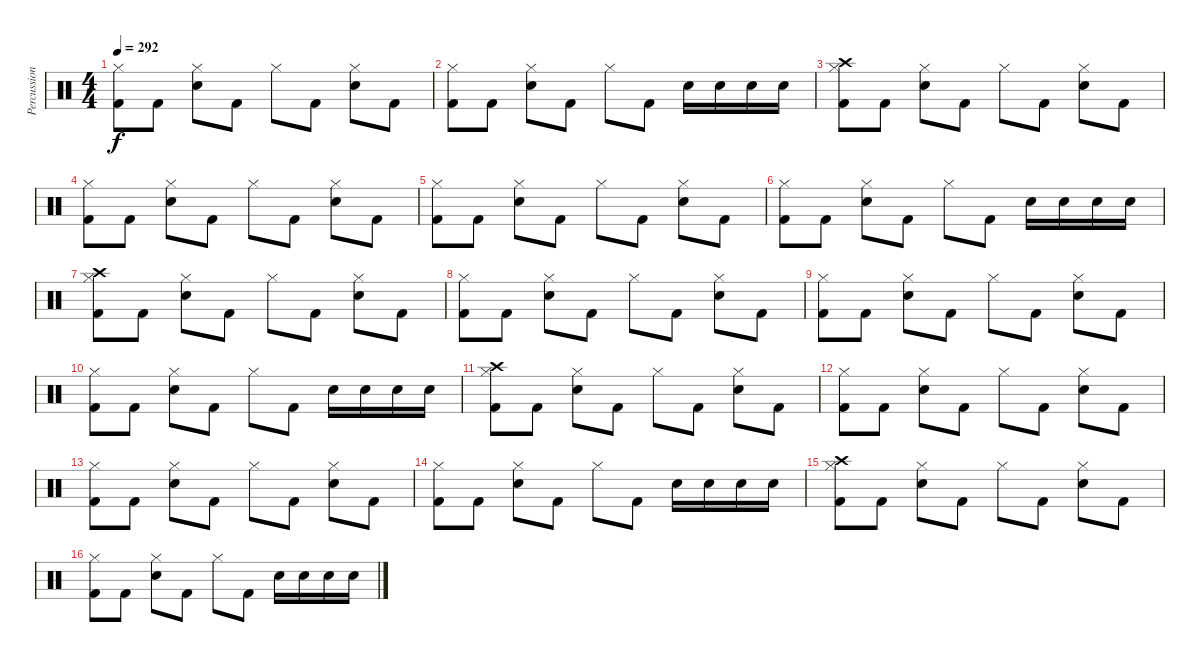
\track ("Percussion" "Percussion") {instrument percussion}
\staff {score}
\articulation defaults
\ts (4 4)
\tempo 292
\clef neutral
\ks c
("Hi-Hat (closed)" "Kick (hit) 2").8{dy f} "Kick (hit) 2".8 ("Hi-Hat (closed)" "Electric Snare (hit)").8 "Kick (hit) 2".8 "Hi-Hat (closed)".8 "Kick (hit) 2".8 ("Hi-Hat (closed)" "Electric Snare (hit)").8 "Kick (hit) 2".8 |
("Hi-Hat (closed)" "Kick (hit) 2").8 "Kick (hit) 2".8 ("Hi-Hat (closed)" "Electric Snare (hit)").8 "Kick (hit) 2".8 "Hi-Hat (closed)".8 "Kick (hit) 2".8 "Electric Snare (hit)".16 "Electric Snare (hit)".16 "Electric Snare (hit)".16 "Electric Snare (hit)".16 |
("Crash high (hit)" "Hi-Hat (closed)" "Kick (hit) 2").8 "Kick (hit) 2".8 ("Hi-Hat (closed)" "Electric Snare (hit)").8 "Kick (hit) 2".8 "Hi-Hat (closed)".8 "Kick (hit) 2".8 ("Hi-Hat (closed)" "Electric Snare (hit)").8 "Kick (hit) 2".8 |
("Hi-Hat (closed)" "Kick (hit) 2").8 "Kick (hit) 2".8 ("Hi-Hat (closed)" "Electric Snare (hit)").8 "Kick (hit) 2".8 "Hi-Hat (closed)".8 "Kick (hit) 2".8 ("Hi-Hat (closed)" "Electric Snare (hit)").8 "Kick (hit) 2".8 |
("Hi-Hat (closed)" "Kick (hit) 2").8 "Kick (hit) 2".8 ("Hi-Hat (closed)" "Electric Snare (hit)").8 "Kick (hit) 2".8 "Hi-Hat (closed)".8 "Kick (hit) 2".8 ("Hi-Hat (closed)" "Electric Snare (hit)").8 "Kick (hit) 2".8 |
("Hi-Hat (closed)" "Kick (hit) 2").8 "Kick (hit) 2".8 ("Hi-Hat (closed)" "Electric Snare (hit)").8 "Kick (hit) 2".8 "Hi-Hat (closed)".8 "Kick (hit) 2".8 "Electric Snare (hit)".16 "Electric Snare (hit)".16 "Electric Snare (hit)".16 "Electric Snare (hit)".16 |
("Crash high (hit)" "Hi-Hat (closed)" "Kick (hit) 2").8 "Kick (hit) 2".8 ("Hi-Hat (closed)" "Electric Snare (hit)").8 "Kick (hit) 2".8 "Hi-Hat (closed)".8 "Kick (hit) 2".8 ("Hi-Hat (closed)" "Electric Snare (hit)").8 "Kick (hit) 2".8 |
("Hi-Hat (closed)" "Kick (hit) 2").8 "Kick (hit) 2".8 ("Hi-Hat (closed)" "Electric Snare (hit)").8 "Kick (hit) 2".8 "Hi-Hat (closed)".8 "Kick (hit) 2".8 ("Hi-Hat (closed)" "Electric Snare (hit)").8 "Kick (hit) 2".8 |
("Hi-Hat (closed)" "Kick (hit) 2").8 "Kick (hit) 2".8 ("Hi-Hat (closed)" "Electric Snare (hit)").8 "Kick (hit) 2".8 "Hi-Hat (closed)".8 "Kick (hit) 2".8 ("Hi-Hat (closed)" "Electric Snare (hit)").8 "Kick (hit) 2".8 |
("Hi-Hat (closed)" "Kick (hit) 2").8 "Kick (hit) 2".8 ("Hi-Hat (closed)" "Electric Snare (hit)").8 "Kick (hit) 2".8 "Hi-Hat (closed)".8 "Kick (hit) 2".8 "Electric Snare (hit)".16 "Electric Snare (hit)".16 "Electric Snare (hit)".16 "Electric Snare (hit)".16 |
("Crash high (hit)" "Hi-Hat (closed)" "Kick (hit) 2").8 "Kick (hit) 2".8 ("Hi-Hat (closed)" "Electric Snare (hit)").8 "Kick (hit) 2".8 "Hi-Hat (closed)".8 "Kick (hit) 2".8 ("Hi-Hat (closed)" "Electric Snare (hit)").8 "Kick (hit) 2".8 |
("Hi-Hat (closed)" "Kick (hit) 2").8 "Kick (hit) 2".8 ("Hi-Hat (closed)" "Electric Snare (hit)").8 "Kick (hit) 2".8 "Hi-Hat (closed)".8 "Kick (hit) 2".8 ("Hi-Hat (closed)" "Electric Snare (hit)").8 "Kick (hit) 2".8 |
("Hi-Hat (closed)" "Kick (hit) 2").8 "Kick (hit) 2".8 ("Hi-Hat (closed)" "Electric Snare (hit)").8 "Kick (hit) 2".8 "Hi-Hat (closed)".8 "Kick (hit) 2".8 ("Hi-Hat (closed)" "Electric Snare (hit)").8 "Kick (hit) 2".8 |
("Hi-Hat (closed)" "Kick (hit) 2").8 "Kick (hit) 2".8 ("Hi-Hat (closed)" "Electric Snare (hit)").8 "Kick (hit) 2".8 "Hi-Hat (closed)".8 "Kick (hit) 2".8 "Electric Snare (hit)".16 "Electric Snare (hit)".16 "Electric Snare (hit)".16 "Electric Snare (hit)".16 |
("Crash high (hit)" "Hi-Hat (closed)" "Kick (hit) 2").8 "Kick (hit) 2".8 ("Hi-Hat (closed)" "Electric Snare (hit)").8 "Kick (hit) 2".8 "Hi-Hat (closed)".8 "Kick (hit) 2".8 ("Hi-Hat (closed)" "Electric Snare (hit)").8 "Kick (hit) 2".8 |
("Hi-Hat (closed)" "Kick (hit) 2").8 "Kick (hit) 2".8 ("Hi-Hat (closed)" "Electric Snare (hit)").8 "Kick (hit) 2".8 "Hi-Hat (closed)".8 "Kick (hit) 2".8 "Electric Snare (hit)".16 "Electric Snare (hit)".16 "Electric Snare (hit)".16 "Electric Snare (hit)".16
